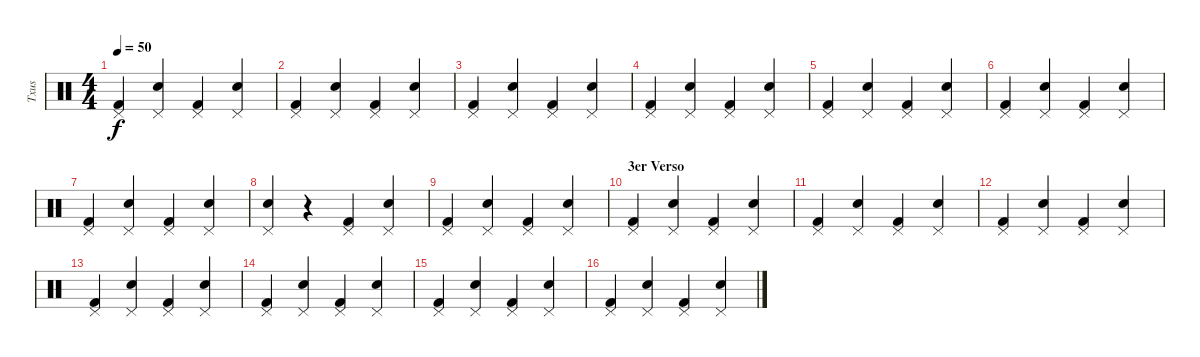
\track ("Txus" "Txus") {instrument percussion}
\staff {score}
\articulation defaults
\ts (4 4)
\tempo 50
\clef neutral
\ks c
("Pedal Hi-Hat (hit)" "Kick (hit) 2").4{dy f} ("Pedal Hi-Hat (hit)" "Snare (hit) 2").4 ("Pedal Hi-Hat (hit)" "Kick (hit) 2").4 ("Pedal Hi-Hat (hit)" "Snare (hit) 2").4 |
("Pedal Hi-Hat (hit)" "Kick (hit) 2").4 ("Pedal Hi-Hat (hit)" "Snare (hit) 2").4 ("Pedal Hi-Hat (hit)" "Kick (hit) 2").4 ("Pedal Hi-Hat (hit)" "Snare (hit) 2").4 |
("Pedal Hi-Hat (hit)" "Kick (hit) 2").4 ("Pedal Hi-Hat (hit)" "Snare (hit) 2").4 ("Pedal Hi-Hat (hit)" "Kick (hit) 2").4 ("Pedal Hi-Hat (hit)" "Snare (hit) 2").4 |
("Pedal Hi-Hat (hit)" "Kick (hit) 2").4 ("Pedal Hi-Hat (hit)" "Snare (hit) 2").4 ("Pedal Hi-Hat (hit)" "Kick (hit) 2").4 ("Pedal Hi-Hat (hit)" "Snare (hit) 2").4 |
("Pedal Hi-Hat (hit)" "Kick (hit) 2").4 ("Pedal Hi-Hat (hit)" "Snare (hit) 2").4 ("Pedal Hi-Hat (hit)" "Kick (hit) 2").4 ("Pedal Hi-Hat (hit)" "Snare (hit) 2").4 |
("Pedal Hi-Hat (hit)" "Kick (hit) 2").4 ("Pedal Hi-Hat (hit)" "Snare (hit) 2").4 ("Pedal Hi-Hat (hit)" "Kick (hit) 2").4 ("Pedal Hi-Hat (hit)" "Snare (hit) 2").4 |
("Pedal Hi-Hat (hit)" "Kick (hit) 2").4 ("Pedal Hi-Hat (hit)" "Snare (hit) 2").4 ("Pedal Hi-Hat (hit)" "Kick (hit) 2").4 ("Pedal Hi-Hat (hit)" "Snare (hit) 2").4 |
("Pedal Hi-Hat (hit)" "Snare (hit) 2").4 r.4 ("Pedal Hi-Hat (hit)" "Kick (hit) 2").4 ("Pedal Hi-Hat (hit)" "Snare (hit) 2").4 |
("Pedal Hi-Hat (hit)" "Kick (hit) 2").4 ("Pedal Hi-Hat (hit)" "Snare (hit) 2").4 ("Pedal Hi-Hat (hit)" "Kick (hit) 2").4 ("Pedal Hi-Hat (hit)" "Snare (hit) 2").4 |
\section ("" "3er Verso")
("Pedal Hi-Hat (hit)" "Kick (hit) 2").4 ("Pedal Hi-Hat (hit)" "Snare (hit) 2").4 ("Pedal Hi-Hat (hit)" "Kick (hit) 2").4 ("Pedal Hi-Hat (hit)" "Snare (hit) 2").4 |
("Pedal Hi-Hat (hit)" "Kick (hit) 2").4 ("Pedal Hi-Hat (hit)" "Snare (hit) 2").4 ("Pedal Hi-Hat (hit)" "Kick (hit) 2").4 ("Pedal Hi-Hat (hit)" "Snare (hit) 2").4 |
("Pedal Hi-Hat (hit)" "Kick (hit) 2").4 ("Pedal Hi-Hat (hit)" "Snare (hit) 2").4 ("Pedal Hi-Hat (hit)" "Kick (hit) 2").4 ("Pedal Hi-Hat (hit)" "Snare (hit) 2").4 |
("Pedal Hi-Hat (hit)" "Kick (hit) 2").4 ("Pedal Hi-Hat (hit)" "Snare (hit) 2").4 ("Pedal Hi-Hat (hit)" "Kick (hit) 2").4 ("Pedal Hi-Hat (hit)" "Snare (hit) 2").4 |
("Pedal Hi-Hat (hit)" "Kick (hit) 2").4 ("Pedal Hi-Hat (hit)" "Snare (hit) 2").4 ("Pedal Hi-Hat (hit)" "Kick (hit) 2").4 ("Pedal Hi-Hat (hit)" "Snare (hit) 2").4 |
("Pedal Hi-Hat (hit)" "Kick (hit) 2").4 ("Pedal Hi-Hat (hit)" "Snare (hit) 2").4 ("Pedal Hi-Hat (hit)" "Kick (hit) 2").4 ("Pedal Hi-Hat (hit)" "Snare (hit) 2").4 |
("Pedal Hi-Hat (hit)" "Kick (hit) 2").4 ("Pedal Hi-Hat (hit)" "Snare (hit) 2").4 ("Pedal Hi-Hat (hit)" "Kick (hit) 2").4 ("Pedal Hi-Hat (hit)" "Snare (hit) 2").4
